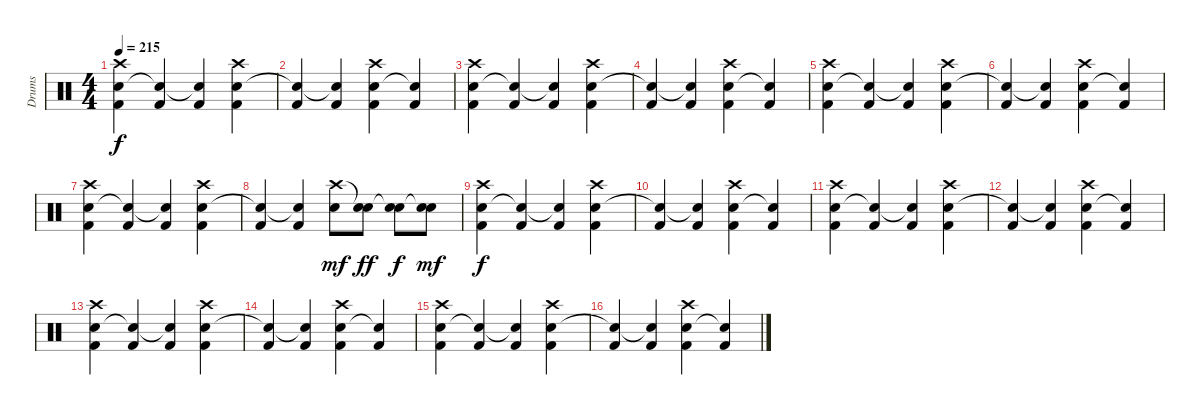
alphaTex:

\track ("Drums" "Drums") {instrument percussion}
\staff {score}
\articulation defaults
\ts (4 4)
\tempo 215
\clef neutral
\ks c
("Kick (hit) 2" "Snare (hit) 2" "Crash high (hit)").4{dy f} ("Kick (hit) 2" "Snare (hit)"{t}).4 ("Kick (hit) 2" "Snare (hit)"{t}).4 ("Kick (hit) 2" "Snare (hit) 2" "Crash high (hit)").4 |
("Kick (hit) 2" "Snare (hit)"{t}).4 ("Kick (hit) 2" "Snare (hit)"{t}).4 ("Kick (hit) 2" "Snare (hit) 2" "Crash high (hit)").4 ("Kick (hit) 2" "Snare (hit)"{t}).4 |
("Kick (hit) 2" "Snare (hit) 2" "Crash high (hit)").4 ("Kick (hit) 2" "Snare (hit)"{t}).4 ("Kick (hit) 2" "Snare (hit)"{t}).4 ("Kick (hit) 2" "Snare (hit) 2" "Crash high (hit)").4 |
("Kick (hit) 2" "Snare (hit)"{t}).4 ("Kick (hit) 2" "Snare (hit)"{t}).4 ("Kick (hit) 2" "Snare (hit) 2" "Crash high (hit)").4 ("Kick (hit) 2" "Snare (hit)"{t}).4 |
("Kick (hit) 2" "Snare (hit) 2" "Crash high (hit)").4 ("Kick (hit) 2" "Snare (hit)"{t}).4 ("Kick (hit) 2" "Snare (hit)"{t}).4 ("Kick (hit) 2" "Snare (hit) 2" "Crash high (hit)").4 |
("Kick (hit) 2" "Snare (hit)"{t}).4 ("Kick (hit) 2" "Snare (hit)"{t}).4 ("Kick (hit) 2" "Snare (hit) 2" "Crash high (hit)").4 ("Kick (hit) 2" "Snare (hit)"{t}).4 |
("Kick (hit) 2" "Snare (hit) 2" "Crash high (hit)").4 ("Kick (hit) 2" "Snare (hit)"{t}).4 ("Kick (hit) 2" "Snare (hit)"{t}).4 ("Kick (hit) 2" "Snare (hit) 2" "Crash high (hit)").4 |
("Kick (hit) 2" "Snare (hit)"{t}).4 ("Kick (hit) 2" "Snare (hit)"{t}).4 ("Snare (hit) 2" "Crash high (hit)").8{dy mf} ("Snare (hit) 2" "Snare (hit)"{t}).8{dy ff} ("Snare (hit) 2" "Snare (hit)"{t}).8{dy f} ("Snare (hit) 2" "Snare (hit)"{t}).8{dy mf} |
("Kick (hit) 2" "Snare (hit) 2" "Crash high (hit)").4{dy f} ("Kick (hit) 2" "Snare (hit)"{t}).4 ("Kick (hit) 2" "Snare (hit)"{t}).4 ("Kick (hit) 2" "Snare (hit) 2" "Crash high (hit)").4 |
("Kick (hit) 2" "Snare (hit)"{t}).4 ("Kick (hit) 2" "Snare (hit)"{t}).4 ("Kick (hit) 2" "Snare (hit) 2" "Crash high (hit)").4 ("Kick (hit) 2" "Snare (hit)"{t}).4 |
("Kick (hit) 2" "Snare (hit) 2" "Crash high (hit)").4 ("Kick (hit) 2" "Snare (hit)"{t}).4 ("Kick (hit) 2" "Snare (hit)"{t}).4 ("Kick (hit) 2" "Snare (hit) 2" "Crash high (hit)").4 |
("Kick (hit) 2" "Snare (hit)"{t}).4 ("Kick (hit) 2" "Snare (hit)"{t}).4 ("Kick (hit) 2" "Snare (hit) 2" "Crash high (hit)").4 ("Kick (hit) 2" "Snare (hit)"{t}).4 |
("Kick (hit) 2" "Snare (hit) 2" "Crash high (hit)").4 ("Kick (hit) 2" "Snare (hit)"{t}).4 ("Kick (hit) 2" "Snare (hit)"{t}).4 ("Kick (hit) 2" "Snare (hit) 2" "Crash high (hit)").4 |
("Kick (hit) 2" "Snare (hit)"{t}).4 ("Kick (hit) 2" "Snare (hit)"{t}).4 ("Kick (hit) 2" "Snare (hit) 2" "Crash high (hit)").4 ("Kick (hit) 2" "Snare (hit)"{t}).4 |
("Kick (hit) 2" "Snare (hit) 2" "Crash high (hit)").4 ("Kick (hit) 2" "Snare (hit)"{t}).4 ("Kick (hit) 2" "Snare (hit)"{t}).4 ("Kick (hit) 2" "Snare (hit) 2" "Crash high (hit)").4 |
("Kick (hit) 2" "Snare (hit)"{t}).4 ("Kick (hit) 2" "Snare (hit)"{t}).4 ("Kick (hit) 2" "Snare (hit) 2" "Crash high (hit)").4 ("Kick (hit) 2" "Snare (hit)"{t}).4
